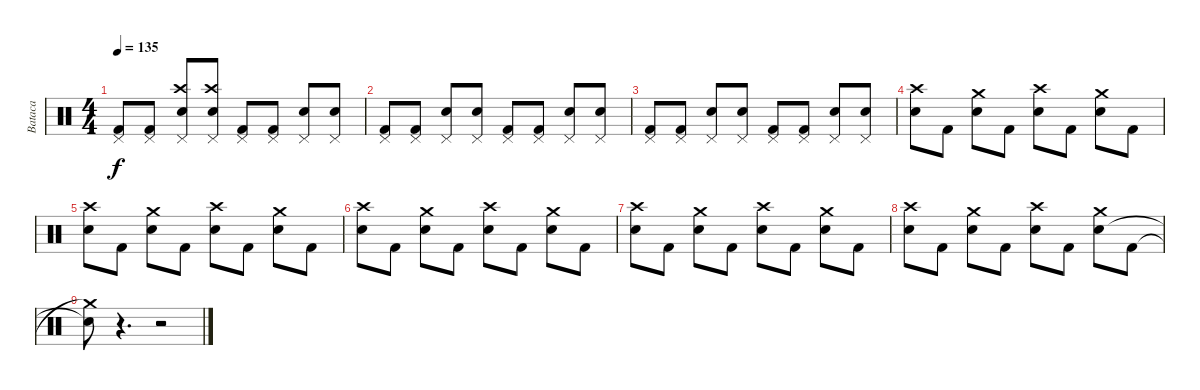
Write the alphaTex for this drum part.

\track ("Bataca" "Bataca") {instrument percussion}
\staff {score}
\articulation defaults
\ts (4 4)
\tempo 135
\clef neutral
\ks c
("Pedal Hi-Hat (hit)" "Kick (hit) 2").8{dy f} ("Pedal Hi-Hat (hit)" "Kick (hit) 2").8 ("Crash high (hit)" "Pedal Hi-Hat (hit)" "Electric Snare (hit)").8 ("Crash high (hit)" "Pedal Hi-Hat (hit)" "Electric Snare (hit)").8 ("Pedal Hi-Hat (hit)" "Kick (hit) 2").8 ("Pedal Hi-Hat (hit)" "Kick (hit) 2").8 ("Pedal Hi-Hat (hit)" "Electric Snare (hit)").8 ("Pedal Hi-Hat (hit)" "Electric Snare (hit)").8 |
("Pedal Hi-Hat (hit)" "Kick (hit) 2").8 ("Pedal Hi-Hat (hit)" "Kick (hit) 2").8 ("Pedal Hi-Hat (hit)" "Electric Snare (hit)").8 ("Pedal Hi-Hat (hit)" "Electric Snare (hit)").8 ("Pedal Hi-Hat (hit)" "Kick (hit) 2").8 ("Pedal Hi-Hat (hit)" "Kick (hit) 2").8 ("Pedal Hi-Hat (hit)" "Electric Snare (hit)").8 ("Pedal Hi-Hat (hit)" "Electric Snare (hit)").8 |
("Pedal Hi-Hat (hit)" "Kick (hit) 2").8 ("Pedal Hi-Hat (hit)" "Kick (hit) 2").8 ("Pedal Hi-Hat (hit)" "Electric Snare (hit)").8 ("Pedal Hi-Hat (hit)" "Electric Snare (hit)").8 ("Pedal Hi-Hat (hit)" "Kick (hit) 2").8 ("Pedal Hi-Hat (hit)" "Kick (hit) 2").8 ("Pedal Hi-Hat (hit)" "Electric Snare (hit)").8 ("Pedal Hi-Hat (hit)" "Electric Snare (hit)").8 |
("Crash high (hit)" "Electric Snare (hit)").8 "Kick (hit) 2".8 ("Crash medium (hit)" "Electric Snare (hit)").8 "Kick (hit) 2".8 ("Crash high (hit)" "Electric Snare (hit)").8 "Kick (hit) 2".8 ("Crash medium (hit)" "Electric Snare (hit)").8 "Kick (hit) 2".8 |
("Crash high (hit)" "Electric Snare (hit)").8 "Kick (hit) 2".8 ("Crash medium (hit)" "Electric Snare (hit)").8 "Kick (hit) 2".8 ("Crash high (hit)" "Electric Snare (hit)").8 "Kick (hit) 2".8 ("Crash medium (hit)" "Electric Snare (hit)").8 "Kick (hit) 2".8 |
("Crash high (hit)" "Electric Snare (hit)").8 "Kick (hit) 2".8 ("Crash medium (hit)" "Electric Snare (hit)").8 "Kick (hit) 2".8 ("Crash high (hit)" "Electric Snare (hit)").8 "Kick (hit) 2".8 ("Crash medium (hit)" "Electric Snare (hit)").8 "Kick (hit) 2".8 |
("Crash high (hit)" "Electric Snare (hit)").8 "Kick (hit) 2".8 ("Crash medium (hit)" "Electric Snare (hit)").8 "Kick (hit) 2".8 ("Crash high (hit)" "Electric Snare (hit)").8 "Kick (hit) 2".8 ("Crash medium (hit)" "Electric Snare (hit)").8 "Kick (hit) 2".8 |
("Crash high (hit)" "Electric Snare (hit)").8 "Kick (hit) 2".8 ("Crash medium (hit)" "Electric Snare (hit)").8 "Kick (hit) 2".8 ("Crash high (hit)" "Electric Snare (hit)").8 "Kick (hit) 2".8 ("Crash medium (hit)" "Electric Snare (hit)").8 "Kick (hit) 2".8 |
("Crash medium (hit)"{t} "Electric Snare (hit)"{t}).8 r.4{d} r.2
